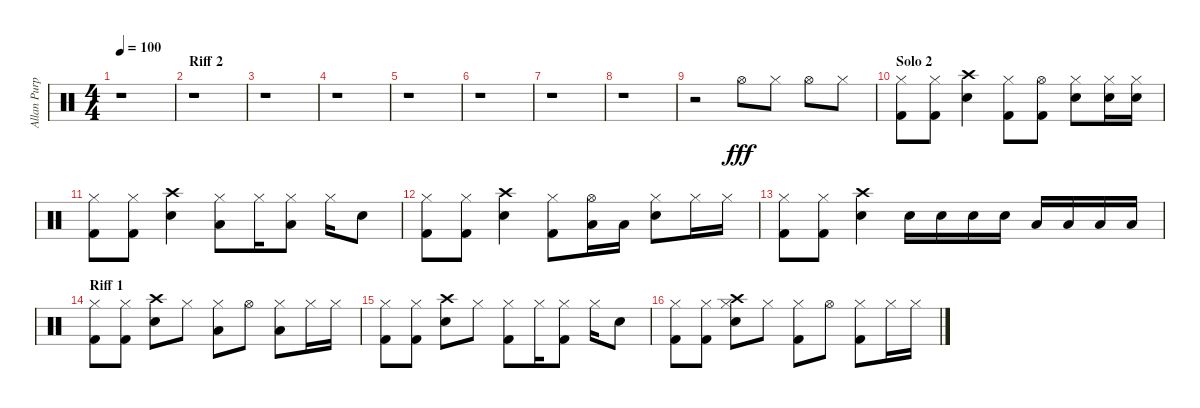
\track ("Allan Purple" "Allan Purp") {instrument percussion}
\staff {score}
\articulation defaults
\ts (4 4)
\tempo 100
\clef neutral
\ks c
r.1{dy fff} |
\section ("" "Riff 2")
r.1 |
r.1 |
r.1 |
r.1 |
r.1 |
r.1 |
r.1 |
r.2 "Hi-Hat (open)".8 "Hi-Hat (closed)".8 "Hi-Hat (open)".8 "Hi-Hat (closed)".8 |
\section ("" "Solo 2")
("Hi-Hat (closed)" "Kick (hit) 2").8 ("Hi-Hat (closed)" "Kick (hit) 2").8 ("Crash high (hit)" "Snare (hit) 2").4 ("Hi-Hat (closed)" "Kick (hit) 2").8 ("Hi-Hat (open)" "Kick (hit) 2").8 ("Hi-Hat (closed)" "Snare (hit) 2").8 ("Hi-Hat (closed)" "Electric Snare (hit)").16 ("Hi-Hat (closed)" "Electric Snare (hit)").16 |
("Hi-Hat (closed)" "Kick (hit) 2").8 ("Hi-Hat (closed)" "Kick (hit) 2").8 ("Crash high (hit)" "Snare (hit) 2").4 ("Hi-Hat (closed)" "Low Tom (hit)").8 "Hi-Hat (closed)".16 ("Hi-Hat (closed)" "Low Tom (hit)").8 "Hi-Hat (closed)".16 "Electric Snare (hit)".8 |
("Hi-Hat (closed)" "Kick (hit) 2").8 ("Hi-Hat (closed)" "Kick (hit) 2").8 ("Crash high (hit)" "Snare (hit) 2").4 ("Hi-Hat (closed)" "Kick (hit) 2").8 ("Hi-Hat (open)" "Low Tom (hit)").16 "Low Tom (hit)".16 ("Hi-Hat (closed)" "Snare (hit) 2").8 "Hi-Hat (closed)".16 "Hi-Hat (closed)".16 |
("Hi-Hat (closed)" "Kick (hit) 2").8 ("Hi-Hat (closed)" "Kick (hit) 2").8 ("Crash high (hit)" "Snare (hit) 2").4 "Electric Snare (hit)".16 "Electric Snare (hit)".16 "Electric Snare (hit)".16 "Electric Snare (hit)".16 "Low Tom (hit)".16 "Low Tom (hit)".16 "Low Tom (hit)".16 "Low Tom (hit)".16 |
\section ("" "Riff 1")
("Hi-Hat (closed)" "Kick (hit) 2").8 ("Hi-Hat (closed)" "Kick (hit) 2").8 ("Crash high (hit)" "Snare (hit) 2").8 "Hi-Hat (closed)".8 ("Hi-Hat (closed)" "Low Tom (hit)").8 "Hi-Hat (open)".8 ("Hi-Hat (closed)" "Low Tom (hit)").8 "Hi-Hat (closed)".16 "Hi-Hat (closed)".16 |
("Hi-Hat (closed)" "Kick (hit) 2").8 ("Hi-Hat (closed)" "Kick (hit) 2").8 ("Crash high (hit)" "Snare (hit) 2").8 "Hi-Hat (closed)".8 ("Hi-Hat (closed)" "Kick (hit) 2").8 "Hi-Hat (closed)".16 ("Hi-Hat (closed)" "Kick (hit) 2").8 "Hi-Hat (closed)".16 "Electric Snare (hit)".8 |
("Hi-Hat (closed)" "Kick (hit) 2").8 ("Hi-Hat (closed)" "Kick (hit) 2").8 ("Crash high (hit)" "Hi-Hat (closed)" "Snare (hit) 2").8 "Hi-Hat (closed)".8 ("Hi-Hat (closed)" "Kick (hit) 2").8 "Hi-Hat (open)".8 ("Hi-Hat (closed)" "Kick (hit) 2").8 "Hi-Hat (closed)".16 "Hi-Hat (closed)".16
